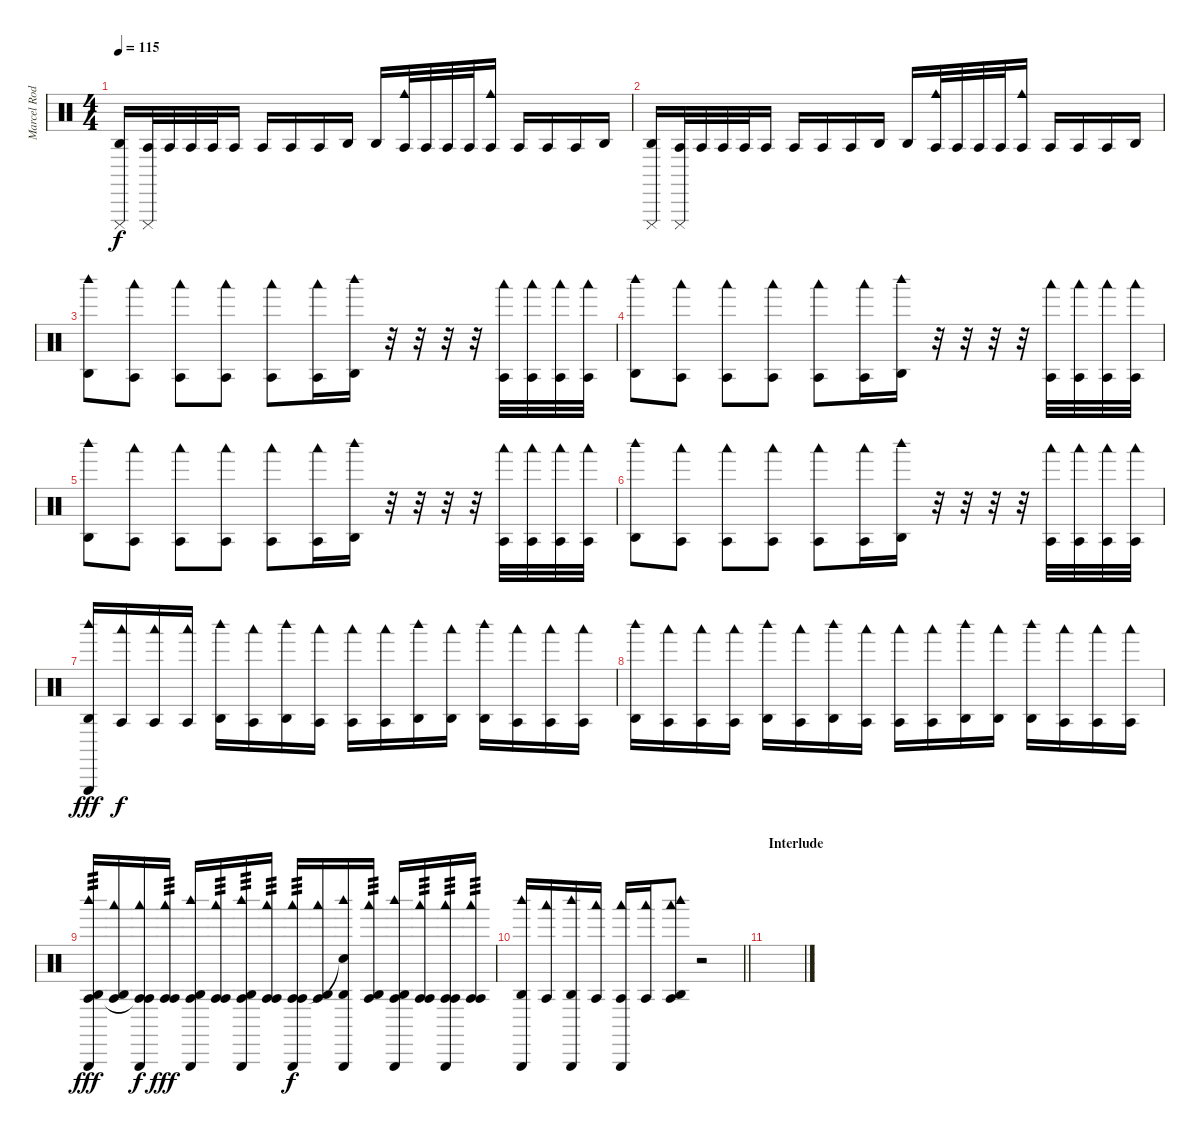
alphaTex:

\track ("Marcel Rodriguez - Bongos and Others" "Marcel Rod") {instrument percussion}
\staff {score}
\articulation defaults
\ts (4 4)
\tempo 115
\clef neutral
\ks c
("Agogo high (hit)" "Cuica (mute)").16{dy f} ("Agogo tow (hit)" "Cuica (mute)").32 "Agogo tow (hit)".32 "Agogo tow (hit)".32 "Agogo tow (hit)".32 "Agogo tow (hit)".16 "Agogo tow (hit)".16 "Agogo tow (hit)".16 "Agogo tow (hit)".16 "Agogo high (hit)".16 "Agogo high (hit)".16 ("Agogo tow (hit)" "Cowbell medium (hit)").32 "Agogo tow (hit)".32 "Agogo tow (hit)".32 "Agogo tow (hit)".32 ("Agogo tow (hit)" "Cowbell medium (hit)").16 "Agogo tow (hit)".16 "Agogo tow (hit)".16 "Agogo tow (hit)".16 "Agogo high (hit)".16 |
("Agogo high (hit)" "Cuica (mute)").16 ("Agogo tow (hit)" "Cuica (mute)").32 "Agogo tow (hit)".32 "Agogo tow (hit)".32 "Agogo tow (hit)".32 "Agogo tow (hit)".16 "Agogo tow (hit)".16 "Agogo tow (hit)".16 "Agogo tow (hit)".16 "Agogo high (hit)".16 "Agogo high (hit)".16 ("Agogo tow (hit)" "Cowbell medium (hit)").32 "Agogo tow (hit)".32 "Agogo tow (hit)".32 "Agogo tow (hit)".32 ("Agogo tow (hit)" "Cowbell medium (hit)").16 "Agogo tow (hit)".16 "Agogo tow (hit)".16 "Agogo tow (hit)".16 "Agogo high (hit)".16 |
("Woodblock high (hit)" "Agogo high (hit)").8 ("Woodblock low (hit)" "Agogo tow (hit)").8 ("Woodblock low (hit)" "Agogo tow (hit)").8 ("Woodblock low (hit)" "Agogo tow (hit)").8 ("Woodblock low (hit)" "Agogo tow (hit)").8 ("Woodblock low (hit)" "Agogo tow (hit)").16 ("Woodblock high (hit)" "Agogo high (hit)").16 r.32 r.32 r.32 r.32 ("Woodblock low (hit)" "Agogo tow (hit)").32 ("Woodblock low (hit)" "Agogo tow (hit)").32 ("Woodblock low (hit)" "Agogo tow (hit)").32 ("Woodblock low (hit)" "Agogo tow (hit)").32 |
("Woodblock high (hit)" "Agogo high (hit)").8 ("Woodblock low (hit)" "Agogo tow (hit)").8 ("Woodblock low (hit)" "Agogo tow (hit)").8 ("Woodblock low (hit)" "Agogo tow (hit)").8 ("Woodblock low (hit)" "Agogo tow (hit)").8 ("Woodblock low (hit)" "Agogo tow (hit)").16 ("Woodblock high (hit)" "Agogo high (hit)").16 r.32 r.32 r.32 r.32 ("Woodblock low (hit)" "Agogo tow (hit)").32 ("Woodblock low (hit)" "Agogo tow (hit)").32 ("Woodblock low (hit)" "Agogo tow (hit)").32 ("Woodblock low (hit)" "Agogo tow (hit)").32 |
("Woodblock high (hit)" "Agogo high (hit)").8 ("Woodblock low (hit)" "Agogo tow (hit)").8 ("Woodblock low (hit)" "Agogo tow (hit)").8 ("Woodblock low (hit)" "Agogo tow (hit)").8 ("Woodblock low (hit)" "Agogo tow (hit)").8 ("Woodblock low (hit)" "Agogo tow (hit)").16 ("Woodblock high (hit)" "Agogo high (hit)").16 r.32 r.32 r.32 r.32 ("Woodblock low (hit)" "Agogo tow (hit)").32 ("Woodblock low (hit)" "Agogo tow (hit)").32 ("Woodblock low (hit)" "Agogo tow (hit)").32 ("Woodblock low (hit)" "Agogo tow (hit)").32 |
("Woodblock high (hit)" "Agogo high (hit)").8 ("Woodblock low (hit)" "Agogo tow (hit)").8 ("Woodblock low (hit)" "Agogo tow (hit)").8 ("Woodblock low (hit)" "Agogo tow (hit)").8 ("Woodblock low (hit)" "Agogo tow (hit)").8 ("Woodblock low (hit)" "Agogo tow (hit)").16 ("Woodblock high (hit)" "Agogo high (hit)").16 r.32 r.32 r.32 r.32 ("Woodblock low (hit)" "Agogo tow (hit)").32 ("Woodblock low (hit)" "Agogo tow (hit)").32 ("Woodblock low (hit)" "Agogo tow (hit)").32 ("Woodblock low (hit)" "Agogo tow (hit)").32 |
("Woodblock high (hit)" "Agogo high (hit)" "Triangle (hit)").16{dy fff} ("Woodblock low (hit)" "Agogo tow (hit)").16{dy f} ("Woodblock low (hit)" "Agogo tow (hit)").16 ("Woodblock low (hit)" "Agogo tow (hit)").16 ("Woodblock high (hit)" "Agogo high (hit)").16 ("Woodblock low (hit)" "Agogo tow (hit)").16 ("Woodblock high (hit)" "Agogo high (hit)").16 ("Woodblock low (hit)" "Agogo tow (hit)").16 ("Woodblock low (hit)" "Agogo tow (hit)").16 ("Woodblock low (hit)" "Agogo tow (hit)").16 ("Woodblock high (hit)" "Agogo high (hit)").16 ("Woodblock low (hit)" "Agogo high (hit)").16 ("Woodblock high (hit)" "Agogo high (hit)").16 ("Woodblock low (hit)" "Agogo tow (hit)").16 ("Woodblock low (hit)" "Agogo tow (hit)").16 ("Woodblock low (hit)" "Agogo tow (hit)").16 |
("Woodblock high (hit)" "Agogo high (hit)").16 ("Woodblock low (hit)" "Agogo tow (hit)").16 ("Woodblock low (hit)" "Agogo tow (hit)").16 ("Woodblock low (hit)" "Agogo tow (hit)").16 ("Woodblock high (hit)" "Agogo high (hit)").16 ("Woodblock low (hit)" "Agogo tow (hit)").16 ("Woodblock high (hit)" "Agogo high (hit)").16 ("Woodblock low (hit)" "Agogo tow (hit)").16 ("Woodblock low (hit)" "Agogo tow (hit)").16 ("Woodblock low (hit)" "Agogo tow (hit)").16 ("Woodblock high (hit)" "Agogo high (hit)").16 ("Woodblock low (hit)" "Agogo high (hit)").16 ("Woodblock high (hit)" "Agogo high (hit)").16 ("Woodblock low (hit)" "Agogo tow (hit)").16 ("Woodblock low (hit)" "Agogo tow (hit)").16 ("Woodblock low (hit)" "Agogo tow (hit)").16 |
("Woodblock high (hit)" "Triangle (hit)" "Agogo high (hit)" "Agogo tow (hit)").16{tp 3 dy fff} ("Woodblock low (hit)" "Agogo tow (hit)" "Agogo high (hit)").16 ("Woodblock low (hit)" "Triangle (hit)" "Agogo tow (hit)" "Agogo tow (hit)"{t}).16{dy f} ("Woodblock low (hit)" "Agogo tow (hit)" "Agogo tow (hit)").16{tp 3 dy fff} ("Woodblock high (hit)" "Triangle (hit)" "Agogo high (hit)" "Agogo tow (hit)").16 ("Woodblock low (hit)" "Agogo tow (hit)" "Agogo tow (hit)").16{tp 3} ("Woodblock high (hit)" "Triangle (hit)" "Agogo high (hit)" "Agogo tow (hit)").16{tp 3} ("Woodblock low (hit)" "Agogo tow (hit)" "Agogo tow (hit)").16{tp 3} ("Woodblock low (hit)" "Triangle (hit)" "Agogo tow (hit)" "Agogo tow (hit)").16{tp 3 dy f} ("Woodblock low (hit)" "Agogo tow (hit)" "Agogo high (hit)").16 ("Woodblock high (hit)" "Triangle (hit)" "Agogo high (hit)" "Snare (hit)"{t}).16 ("Woodblock low (hit)" "Agogo high (hit)" "Agogo tow (hit)").16{tp 3} ("Woodblock high (hit)" "Triangle (hit)" "Agogo high (hit)" "Agogo tow (hit)").16 ("Woodblock low (hit)" "Agogo tow (hit)" "Agogo tow (hit)").16{tp 3} ("Woodblock low (hit)" "Triangle (hit)" "Agogo tow (hit)" "Agogo tow (hit)").16{tp 3} ("Woodblock low (hit)" "Agogo tow (hit)" "Agogo tow (hit)").16{tp 3} |
\barLineRight lightlight
("Woodblock high (hit)" "Triangle (hit)" "Agogo high (hit)").16 ("Woodblock low (hit)" "Agogo tow (hit)").16 ("Woodblock high (hit)" "Triangle (hit)" "Agogo high (hit)").16 ("Woodblock low (hit)" "Agogo tow (hit)").16 ("Woodblock low (hit)" "Triangle (hit)" "Agogo tow (hit)").16 ("Woodblock low (hit)" "Agogo tow (hit)").16 ("Woodblock high (hit)" "Woodblock low (hit)" "Agogo tow (hit)" "Agogo high (hit)").8 r.2 |
\section ("" "Interlude")
